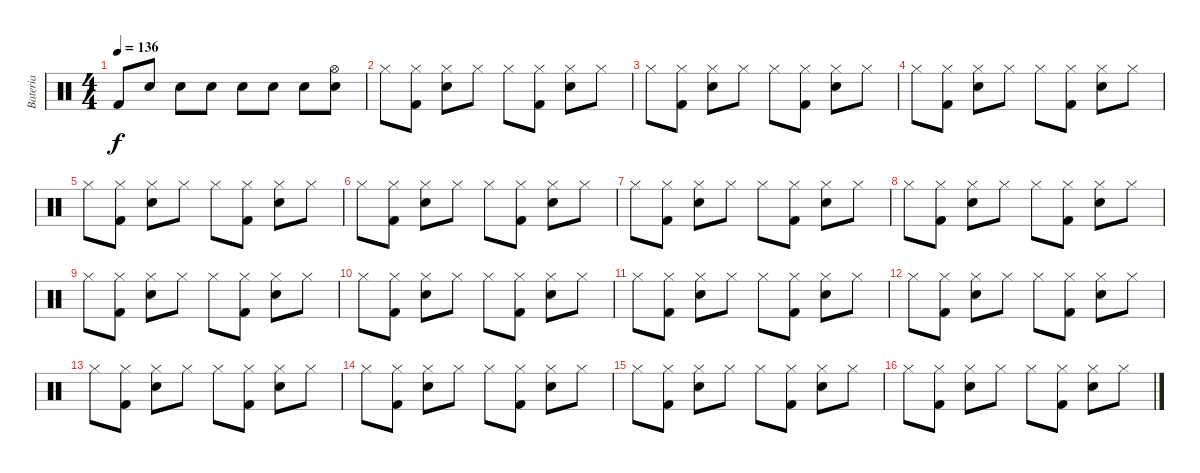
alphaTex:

\track ("Bateria" "Bateria") {instrument percussion}
\staff {score}
\articulation defaults
\ts (4 4)
\tempo 136
\clef neutral
\ks c "Kick (hit) 2".8{dy f} "Snare (hit) 2".8 "Snare (hit) 2".8 "Snare (hit) 2".8 "Snare (hit) 2".8 "Snare (hit) 2".8 "Snare (hit) 2".8
("Hi-Hat (open)" "Snare (hit) 2").8 |
"Hi-Hat (closed)".8 ("Kick (hit) 2" "Hi-Hat (closed)").8 ("Snare (hit) 2" "Hi-Hat (closed)").8 "Hi-Hat (closed)".8 "Hi-Hat (closed)".8 ("Kick (hit) 2" "Hi-Hat (closed)").8 ("Hi-Hat (closed)" "Snare (hit) 2").8 "Hi-Hat (closed)".8 |
"Hi-Hat (closed)".8 ("Kick (hit) 2" "Hi-Hat (closed)").8 ("Snare (hit) 2" "Hi-Hat (closed)").8 "Hi-Hat (closed)".8 "Hi-Hat (closed)".8 ("Kick (hit) 2" "Hi-Hat (closed)").8 ("Hi-Hat (closed)" "Snare (hit) 2").8 "Hi-Hat (closed)".8 |
"Hi-Hat (closed)".8 ("Kick (hit) 2" "Hi-Hat (closed)").8 ("Snare (hit) 2" "Hi-Hat (closed)").8 "Hi-Hat (closed)".8 "Hi-Hat (closed)".8 ("Kick (hit) 2" "Hi-Hat (closed)").8 ("Hi-Hat (closed)" "Snare (hit) 2").8 "Hi-Hat (closed)".8 |
"Hi-Hat (closed)".8 ("Kick (hit) 2" "Hi-Hat (closed)").8 ("Snare (hit) 2" "Hi-Hat (closed)").8 "Hi-Hat (closed)".8 "Hi-Hat (closed)".8 ("Kick (hit) 2" "Hi-Hat (closed)").8 ("Hi-Hat (closed)" "Snare (hit) 2").8 "Hi-Hat (closed)".8 |
"Hi-Hat (closed)".8 ("Kick (hit) 2" "Hi-Hat (closed)").8 ("Snare (hit) 2" "Hi-Hat (closed)").8 "Hi-Hat (closed)".8 "Hi-Hat (closed)".8 ("Kick (hit) 2" "Hi-Hat (closed)").8 ("Hi-Hat (closed)" "Snare (hit) 2").8 "Hi-Hat (closed)".8 |
"Hi-Hat (closed)".8 ("Kick (hit) 2" "Hi-Hat (closed)").8 ("Snare (hit) 2" "Hi-Hat (closed)").8 "Hi-Hat (closed)".8 "Hi-Hat (closed)".8 ("Kick (hit) 2" "Hi-Hat (closed)").8 ("Hi-Hat (closed)" "Snare (hit) 2").8 "Hi-Hat (closed)".8 |
"Hi-Hat (closed)".8 ("Kick (hit) 2" "Hi-Hat (closed)").8 ("Snare (hit) 2" "Hi-Hat (closed)").8 "Hi-Hat (closed)".8 "Hi-Hat (closed)".8 ("Kick (hit) 2" "Hi-Hat (closed)").8 ("Hi-Hat (closed)" "Snare (hit) 2").8 "Hi-Hat (closed)".8 |
"Hi-Hat (closed)".8 ("Kick (hit) 2" "Hi-Hat (closed)").8 ("Snare (hit) 2" "Hi-Hat (closed)").8 "Hi-Hat (closed)".8 "Hi-Hat (closed)".8 ("Kick (hit) 2" "Hi-Hat (closed)").8 ("Hi-Hat (closed)" "Snare (hit) 2").8 "Hi-Hat (closed)".8 |
"Hi-Hat (closed)".8 ("Kick (hit) 2" "Hi-Hat (closed)").8 ("Snare (hit) 2" "Hi-Hat (closed)").8 "Hi-Hat (closed)".8 "Hi-Hat (closed)".8 ("Kick (hit) 2" "Hi-Hat (closed)").8 ("Hi-Hat (closed)" "Snare (hit) 2").8 "Hi-Hat (closed)".8 |
"Hi-Hat (closed)".8 ("Kick (hit) 2" "Hi-Hat (closed)").8 ("Snare (hit) 2" "Hi-Hat (closed)").8 "Hi-Hat (closed)".8 "Hi-Hat (closed)".8 ("Kick (hit) 2" "Hi-Hat (closed)").8 ("Hi-Hat (closed)" "Snare (hit) 2").8 "Hi-Hat (closed)".8 |
"Hi-Hat (closed)".8 ("Kick (hit) 2" "Hi-Hat (closed)").8 ("Snare (hit) 2" "Hi-Hat (closed)").8 "Hi-Hat (closed)".8 "Hi-Hat (closed)".8 ("Kick (hit) 2" "Hi-Hat (closed)").8 ("Hi-Hat (closed)" "Snare (hit) 2").8 "Hi-Hat (closed)".8 |
"Hi-Hat (closed)".8 ("Kick (hit) 2" "Hi-Hat (closed)").8 ("Snare (hit) 2" "Hi-Hat (closed)").8 "Hi-Hat (closed)".8 "Hi-Hat (closed)".8 ("Kick (hit) 2" "Hi-Hat (closed)").8 ("Hi-Hat (closed)" "Snare (hit) 2").8 "Hi-Hat (closed)".8 |
"Hi-Hat (closed)".8 ("Kick (hit) 2" "Hi-Hat (closed)").8 ("Snare (hit) 2" "Hi-Hat (closed)").8 "Hi-Hat (closed)".8 "Hi-Hat (closed)".8 ("Kick (hit) 2" "Hi-Hat (closed)").8 ("Hi-Hat (closed)" "Snare (hit) 2").8 "Hi-Hat (closed)".8 |
"Hi-Hat (closed)".8 ("Kick (hit) 2" "Hi-Hat (closed)").8 ("Snare (hit) 2" "Hi-Hat (closed)").8 "Hi-Hat (closed)".8 "Hi-Hat (closed)".8 ("Kick (hit) 2" "Hi-Hat (closed)").8 ("Hi-Hat (closed)" "Snare (hit) 2").8 "Hi-Hat (closed)".8 |
"Hi-Hat (closed)".8 ("Kick (hit) 2" "Hi-Hat (closed)").8 ("Snare (hit) 2" "Hi-Hat (closed)").8 "Hi-Hat (closed)".8 "Hi-Hat (closed)".8 ("Kick (hit) 2" "Hi-Hat (closed)").8 ("Hi-Hat (closed)" "Snare (hit) 2").8 "Hi-Hat (closed)".8
